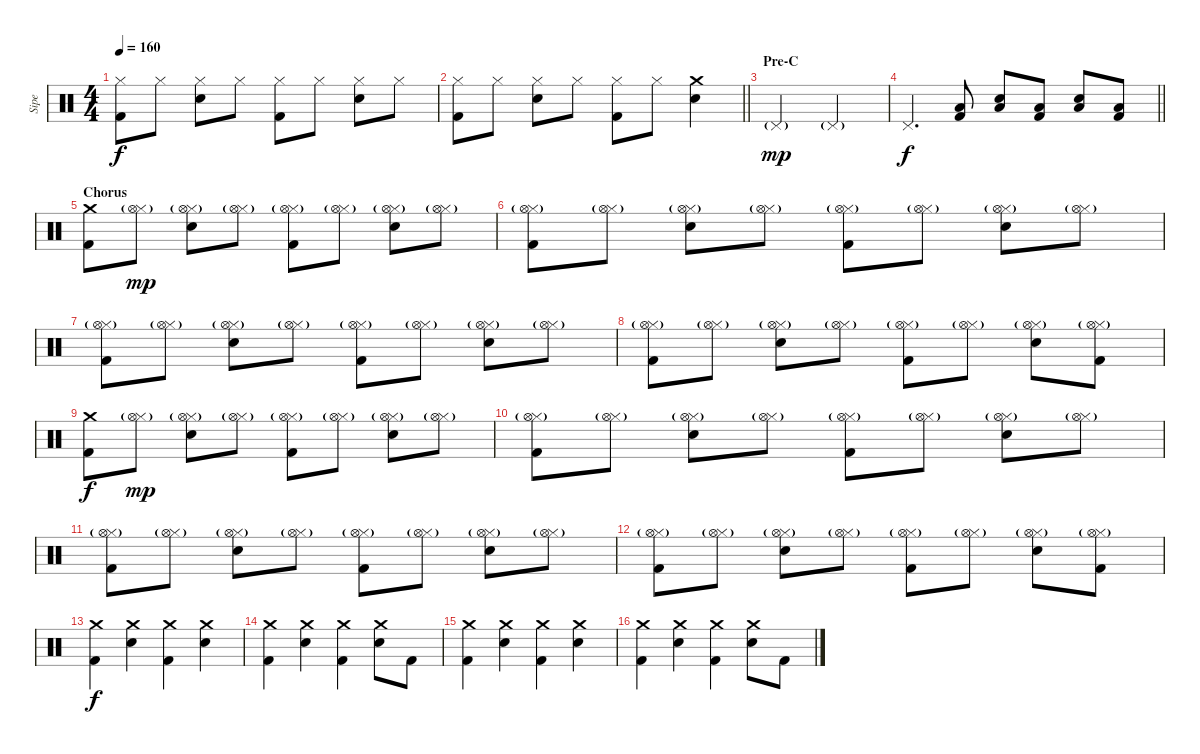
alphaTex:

\track ("Sipe" "Sipe") {instrument percussion}
\staff {score}
\articulation defaults
\ts (4 4)
\tempo 160
\clef neutral
\ks c
("Hi-Hat (closed)" "Kick (hit) 2").8{dy f} "Hi-Hat (closed)".8 ("Hi-Hat (closed)" "Snare (hit) 2").8 "Hi-Hat (closed)".8 ("Hi-Hat (closed)" "Kick (hit) 2").8 "Hi-Hat (closed)".8 ("Hi-Hat (closed)" "Snare (hit) 2").8 "Hi-Hat (closed)".8 |
\barLineRight lightlight
("Hi-Hat (closed)" "Kick (hit) 2").8 "Hi-Hat (closed)".8 ("Hi-Hat (closed)" "Snare (hit) 2").8 "Hi-Hat (closed)".8 ("Hi-Hat (closed)" "Kick (hit) 2").8 "Hi-Hat (closed)".8 ("Crash medium (hit)" "Snare (hit) 2").4 |
\section ("" "Pre-C")
"Pedal Hi-Hat (hit)"{g}.2{dy mp} "Pedal Hi-Hat (hit)"{g}.2 |
\barLineRight lightlight "Pedal Hi-Hat (hit)".4{d dy f}
("Low Floor Tom (hit)" "Kick (hit) 2").8 ("Snare (hit) 2" "Low Floor Tom (hit)").8 ("Low Floor Tom (hit)" "Kick (hit) 2").8 ("Snare (hit) 2" "Low Floor Tom (hit)").8 ("Kick (hit) 2" "Low Floor Tom (hit)").8 |
\section ("" "Chorus")
("Crash medium (hit)" "Kick (hit) 2").8 ("Hi-Hat (closed)" "Hi-Hat (open)"{g}).8{dy mp} ("Hi-Hat (closed)" "Snare (hit) 2" "Hi-Hat (open)"{g}).8 ("Hi-Hat (closed)" "Hi-Hat (open)"{g}).8 ("Hi-Hat (closed)" "Kick (hit) 2" "Hi-Hat (open)"{g}).8 ("Hi-Hat (closed)" "Hi-Hat (open)"{g}).8 ("Hi-Hat (closed)" "Snare (hit) 2" "Hi-Hat (open)"{g}).8 ("Hi-Hat (closed)" "Hi-Hat (open)"{g}).8 |
("Hi-Hat (closed)" "Kick (hit) 2" "Hi-Hat (open)"{g}).8 ("Hi-Hat (closed)" "Hi-Hat (open)"{g}).8 ("Hi-Hat (closed)" "Snare (hit) 2" "Hi-Hat (open)"{g}).8 ("Hi-Hat (closed)" "Hi-Hat (open)"{g}).8 ("Hi-Hat (closed)" "Kick (hit) 2" "Hi-Hat (open)"{g}).8 ("Hi-Hat (closed)" "Hi-Hat (open)"{g}).8 ("Hi-Hat (closed)" "Snare (hit) 2" "Hi-Hat (open)"{g}).8 ("Hi-Hat (closed)" "Hi-Hat (open)"{g}).8 |
("Hi-Hat (closed)" "Kick (hit) 2" "Hi-Hat (open)"{g}).8 ("Hi-Hat (closed)" "Hi-Hat (open)"{g}).8 ("Hi-Hat (closed)" "Snare (hit) 2" "Hi-Hat (open)"{g}).8 ("Hi-Hat (closed)" "Hi-Hat (open)"{g}).8 ("Hi-Hat (closed)" "Kick (hit) 2" "Hi-Hat (open)"{g}).8 ("Hi-Hat (closed)" "Hi-Hat (open)"{g}).8 ("Hi-Hat (closed)" "Snare (hit) 2" "Hi-Hat (open)"{g}).8 ("Hi-Hat (closed)" "Hi-Hat (open)"{g}).8 |
("Hi-Hat (closed)" "Kick (hit) 2" "Hi-Hat (open)"{g}).8 ("Hi-Hat (closed)" "Hi-Hat (open)"{g}).8 ("Hi-Hat (closed)" "Snare (hit) 2" "Hi-Hat (open)"{g}).8 ("Hi-Hat (closed)" "Hi-Hat (open)"{g}).8 ("Hi-Hat (closed)" "Kick (hit) 2" "Hi-Hat (open)"{g}).8 ("Hi-Hat (closed)" "Hi-Hat (open)"{g}).8 ("Hi-Hat (closed)" "Snare (hit) 2" "Hi-Hat (open)"{g}).8 ("Hi-Hat (closed)" "Kick (hit) 2" "Hi-Hat (open)"{g}).8 |
("Crash medium (hit)" "Kick (hit) 2").8{dy f} ("Hi-Hat (closed)" "Hi-Hat (open)"{g}).8{dy mp} ("Hi-Hat (closed)" "Snare (hit) 2" "Hi-Hat (open)"{g}).8 ("Hi-Hat (closed)" "Hi-Hat (open)"{g}).8 ("Hi-Hat (closed)" "Kick (hit) 2" "Hi-Hat (open)"{g}).8 ("Hi-Hat (closed)" "Hi-Hat (open)"{g}).8 ("Hi-Hat (closed)" "Snare (hit) 2" "Hi-Hat (open)"{g}).8 ("Hi-Hat (closed)" "Hi-Hat (open)"{g}).8 |
("Hi-Hat (closed)" "Kick (hit) 2" "Hi-Hat (open)"{g}).8 ("Hi-Hat (closed)" "Hi-Hat (open)"{g}).8 ("Hi-Hat (closed)" "Snare (hit) 2" "Hi-Hat (open)"{g}).8 ("Hi-Hat (closed)" "Hi-Hat (open)"{g}).8 ("Hi-Hat (closed)" "Kick (hit) 2" "Hi-Hat (open)"{g}).8 ("Hi-Hat (closed)" "Hi-Hat (open)"{g}).8 ("Hi-Hat (closed)" "Snare (hit) 2" "Hi-Hat (open)"{g}).8 ("Hi-Hat (closed)" "Hi-Hat (open)"{g}).8 |
("Hi-Hat (closed)" "Kick (hit) 2" "Hi-Hat (open)"{g}).8 ("Hi-Hat (closed)" "Hi-Hat (open)"{g}).8 ("Hi-Hat (closed)" "Snare (hit) 2" "Hi-Hat (open)"{g}).8 ("Hi-Hat (closed)" "Hi-Hat (open)"{g}).8 ("Hi-Hat (closed)" "Kick (hit) 2" "Hi-Hat (open)"{g}).8 ("Hi-Hat (closed)" "Hi-Hat (open)"{g}).8 ("Hi-Hat (closed)" "Snare (hit) 2" "Hi-Hat (open)"{g}).8 ("Hi-Hat (closed)" "Hi-Hat (open)"{g}).8 |
("Hi-Hat (closed)" "Kick (hit) 2" "Hi-Hat (open)"{g}).8 ("Hi-Hat (closed)" "Hi-Hat (open)"{g}).8 ("Hi-Hat (closed)" "Snare (hit) 2" "Hi-Hat (open)"{g}).8 ("Hi-Hat (closed)" "Hi-Hat (open)"{g}).8 ("Hi-Hat (closed)" "Kick (hit) 2" "Hi-Hat (open)"{g}).8 ("Hi-Hat (closed)" "Hi-Hat (open)"{g}).8 ("Hi-Hat (closed)" "Snare (hit) 2" "Hi-Hat (open)"{g}).8 ("Hi-Hat (closed)" "Kick (hit) 2" "Hi-Hat (open)"{g}).8 |
("Crash medium (hit)" "Kick (hit) 2").4{dy f} ("Crash medium (hit)" "Snare (hit) 2").4 ("Crash medium (hit)" "Kick (hit) 2").4 ("Crash medium (hit)" "Snare (hit) 2").4 |
("Crash medium (hit)" "Kick (hit) 2").4 ("Crash medium (hit)" "Snare (hit) 2").4 ("Crash medium (hit)" "Kick (hit) 2").4 ("Crash medium (hit)" "Snare (hit) 2").8 "Kick (hit) 2".8 |
("Crash medium (hit)" "Kick (hit) 2").4 ("Crash medium (hit)" "Snare (hit) 2").4 ("Crash medium (hit)" "Kick (hit) 2").4 ("Crash medium (hit)" "Snare (hit) 2").4 |
("Crash medium (hit)" "Kick (hit) 2").4 ("Crash medium (hit)" "Snare (hit) 2").4 ("Crash medium (hit)" "Kick (hit) 2").4 ("Crash medium (hit)" "Snare (hit) 2").8 "Kick (hit) 2".8
